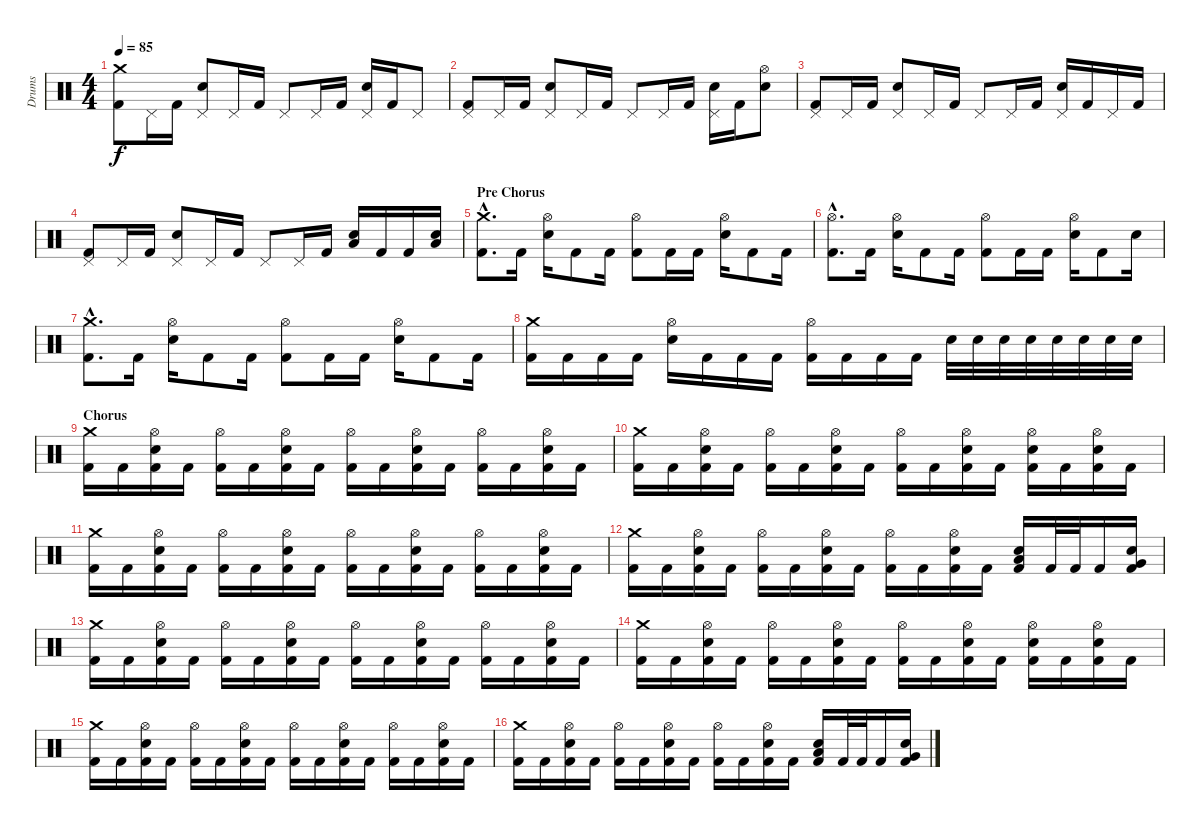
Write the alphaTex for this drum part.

\track ("Drums" "Drums") {instrument percussion}
\staff {score}
\articulation defaults
\ts (4 4)
\tempo 85
\clef neutral
\ks c
("Crash medium (hit)" "Kick (hit) 2").8{dy f} "Pedal Hi-Hat (hit)".16 "Kick (hit) 2".16 ("Pedal Hi-Hat (hit)" "Electric Snare (hit)").8 "Pedal Hi-Hat (hit)".16 "Kick (hit) 2".16 "Pedal Hi-Hat (hit)".8 "Pedal Hi-Hat (hit)".16 "Kick (hit) 2".16 ("Pedal Hi-Hat (hit)" "Electric Snare (hit)").16 "Kick (hit) 2".16 "Pedal Hi-Hat (hit)".8 |
("Pedal Hi-Hat (hit)" "Kick (hit) 2").8 "Pedal Hi-Hat (hit)".16 "Kick (hit) 2".16 ("Pedal Hi-Hat (hit)" "Electric Snare (hit)").8 "Pedal Hi-Hat (hit)".16 "Kick (hit) 2".16 "Pedal Hi-Hat (hit)".8 "Pedal Hi-Hat (hit)".16 "Kick (hit) 2".16 ("Pedal Hi-Hat (hit)" "Electric Snare (hit)").16 "Kick (hit) 2".16 ("Hi-Hat (open)" "Electric Snare (hit)").8 |
("Pedal Hi-Hat (hit)" "Kick (hit) 2").8 "Pedal Hi-Hat (hit)".16 "Kick (hit) 2".16 ("Pedal Hi-Hat (hit)" "Electric Snare (hit)").8 "Pedal Hi-Hat (hit)".16 "Kick (hit) 2".16 "Pedal Hi-Hat (hit)".8 "Pedal Hi-Hat (hit)".16 "Kick (hit) 2".16 ("Pedal Hi-Hat (hit)" "Electric Snare (hit)").16 "Kick (hit) 2".16 "Pedal Hi-Hat (hit)".16 "Kick (hit) 2".16 |
("Pedal Hi-Hat (hit)" "Kick (hit) 2").8 "Pedal Hi-Hat (hit)".16 "Kick (hit) 2".16 ("Pedal Hi-Hat (hit)" "Electric Snare (hit)").8 "Pedal Hi-Hat (hit)".16 "Kick (hit) 2".16 "Pedal Hi-Hat (hit)".8 "Pedal Hi-Hat (hit)".16 "Kick (hit) 2".16 ("Electric Snare (hit)" "Low Tom (hit)").16 "Kick (hit) 2".16 "Kick (hit) 2".16 ("Electric Snare (hit)" "Low Tom (hit)").16 |
\section ("" "Pre Chorus")
("Crash medium (hit)"{hac} "Kick (hit) 2"{hac}).8{d} "Kick (hit) 2".16 ("Hi-Hat (open)" "Electric Snare (hit)").16 "Kick (hit) 2".8 "Kick (hit) 2".16 ("Hi-Hat (open)" "Kick (hit) 2").8 "Kick (hit) 2".16 "Kick (hit) 2".16 ("Hi-Hat (open)" "Electric Snare (hit)").16 "Kick (hit) 2".8 "Kick (hit) 2".16 |
("Hi-Hat (open)"{hac} "Kick (hit) 2"{hac}).8{d} "Kick (hit) 2".16 ("Hi-Hat (open)" "Electric Snare (hit)").16 "Kick (hit) 2".8 "Kick (hit) 2".16 ("Hi-Hat (open)" "Kick (hit) 2").8 "Kick (hit) 2".16 "Kick (hit) 2".16 ("Hi-Hat (open)" "Electric Snare (hit)").16 "Kick (hit) 2".8 "Electric Snare (hit)".16 |
("Crash medium (hit)"{hac} "Kick (hit) 2"{hac}).8{d} "Kick (hit) 2".16 ("Hi-Hat (open)" "Electric Snare (hit)").16 "Kick (hit) 2".8 "Kick (hit) 2".16 ("Hi-Hat (open)" "Kick (hit) 2").8 "Kick (hit) 2".16 "Kick (hit) 2".16 ("Hi-Hat (open)" "Electric Snare (hit)").16 "Kick (hit) 2".8 "Kick (hit) 2".16 |
("Crash medium (hit)" "Kick (hit) 2").16 "Kick (hit) 2".16 "Kick (hit) 2".16 "Kick (hit) 2".16 ("Hi-Hat (open)" "Electric Snare (hit)").16 "Kick (hit) 2".16 "Kick (hit) 2".16 "Kick (hit) 2".16 ("Hi-Hat (open)" "Kick (hit) 2").16 "Kick (hit) 2".16 "Kick (hit) 2".16 "Kick (hit) 2".16 "Electric Snare (hit)".32 "Electric Snare (hit)".32 "Electric Snare (hit)".32 "Electric Snare (hit)".32 "Electric Snare (hit)".32 "Electric Snare (hit)".32 "Electric Snare (hit)".32 "Electric Snare (hit)".32 |
\section ("" "Chorus")
("Crash medium (hit)" "Kick (hit) 2").16 "Kick (hit) 2".16 ("Hi-Hat (open)" "Electric Snare (hit)" "Kick (hit) 2").16 "Kick (hit) 2".16 ("Hi-Hat (open)" "Kick (hit) 2").16 "Kick (hit) 2".16 ("Hi-Hat (open)" "Electric Snare (hit)" "Kick (hit) 2").16 "Kick (hit) 2".16 ("Hi-Hat (open)" "Kick (hit) 2").16 "Kick (hit) 2".16 ("Hi-Hat (open)" "Electric Snare (hit)" "Kick (hit) 2").16 "Kick (hit) 2".16 ("Hi-Hat (open)" "Kick (hit) 2").16 "Kick (hit) 2".16 ("Hi-Hat (open)" "Electric Snare (hit)" "Kick (hit) 2").16 "Kick (hit) 2".16 |
("Crash medium (hit)" "Kick (hit) 2").16 "Kick (hit) 2".16 ("Hi-Hat (open)" "Electric Snare (hit)" "Kick (hit) 2").16 "Kick (hit) 2".16 ("Hi-Hat (open)" "Kick (hit) 2").16 "Kick (hit) 2".16 ("Hi-Hat (open)" "Electric Snare (hit)" "Kick (hit) 2").16 "Kick (hit) 2".16 ("Hi-Hat (open)" "Kick (hit) 2").16 "Kick (hit) 2".16 ("Hi-Hat (open)" "Electric Snare (hit)" "Kick (hit) 2").16 "Kick (hit) 2".16 ("Hi-Hat (open)" "Electric Snare (hit)" "Kick (hit) 2").16 "Kick (hit) 2".16 ("Hi-Hat (open)" "Electric Snare (hit)" "Kick (hit) 2").16 "Kick (hit) 2".16 |
("Crash medium (hit)" "Kick (hit) 2").16 "Kick (hit) 2".16 ("Hi-Hat (open)" "Electric Snare (hit)" "Kick (hit) 2").16 "Kick (hit) 2".16 ("Hi-Hat (open)" "Kick (hit) 2").16 "Kick (hit) 2".16 ("Hi-Hat (open)" "Electric Snare (hit)" "Kick (hit) 2").16 "Kick (hit) 2".16 ("Hi-Hat (open)" "Kick (hit) 2").16 "Kick (hit) 2".16 ("Hi-Hat (open)" "Electric Snare (hit)" "Kick (hit) 2").16 "Kick (hit) 2".16 ("Hi-Hat (open)" "Kick (hit) 2").16 "Kick (hit) 2".16 ("Hi-Hat (open)" "Electric Snare (hit)" "Kick (hit) 2").16 "Kick (hit) 2".16 |
("Crash medium (hit)" "Kick (hit) 2").16 "Kick (hit) 2".16 ("Hi-Hat (open)" "Electric Snare (hit)" "Kick (hit) 2").16 "Kick (hit) 2".16 ("Hi-Hat (open)" "Kick (hit) 2").16 "Kick (hit) 2".16 ("Hi-Hat (open)" "Electric Snare (hit)" "Kick (hit) 2").16 "Kick (hit) 2".16 ("Hi-Hat (open)" "Kick (hit) 2").16 "Kick (hit) 2".16 ("Hi-Hat (open)" "Electric Snare (hit)" "Kick (hit) 2").16 "Kick (hit) 2".16 ("Electric Snare (hit)" "Low Tom (hit)" "Kick (hit) 2").16 "Kick (hit) 2".32 "Kick (hit) 2".32 "Kick (hit) 2".16 ("Electric Snare (hit)" "Very Low Tom (hit)" "Kick (hit) 2").16 |
("Crash medium (hit)" "Kick (hit) 2").16 "Kick (hit) 2".16 ("Hi-Hat (open)" "Electric Snare (hit)" "Kick (hit) 2").16 "Kick (hit) 2".16 ("Hi-Hat (open)" "Kick (hit) 2").16 "Kick (hit) 2".16 ("Hi-Hat (open)" "Electric Snare (hit)" "Kick (hit) 2").16 "Kick (hit) 2".16 ("Hi-Hat (open)" "Kick (hit) 2").16 "Kick (hit) 2".16 ("Hi-Hat (open)" "Electric Snare (hit)" "Kick (hit) 2").16 "Kick (hit) 2".16 ("Hi-Hat (open)" "Kick (hit) 2").16 "Kick (hit) 2".16 ("Hi-Hat (open)" "Electric Snare (hit)" "Kick (hit) 2").16 "Kick (hit) 2".16 |
("Crash medium (hit)" "Kick (hit) 2").16 "Kick (hit) 2".16 ("Hi-Hat (open)" "Electric Snare (hit)" "Kick (hit) 2").16 "Kick (hit) 2".16 ("Hi-Hat (open)" "Kick (hit) 2").16 "Kick (hit) 2".16 ("Hi-Hat (open)" "Electric Snare (hit)" "Kick (hit) 2").16 "Kick (hit) 2".16 ("Hi-Hat (open)" "Kick (hit) 2").16 "Kick (hit) 2".16 ("Hi-Hat (open)" "Electric Snare (hit)" "Kick (hit) 2").16 "Kick (hit) 2".16 ("Hi-Hat (open)" "Electric Snare (hit)" "Kick (hit) 2").16 "Kick (hit) 2".16 ("Hi-Hat (open)" "Electric Snare (hit)" "Kick (hit) 2").16 "Kick (hit) 2".16 |
("Crash medium (hit)" "Kick (hit) 2").16 "Kick (hit) 2".16 ("Hi-Hat (open)" "Electric Snare (hit)" "Kick (hit) 2").16 "Kick (hit) 2".16 ("Hi-Hat (open)" "Kick (hit) 2").16 "Kick (hit) 2".16 ("Hi-Hat (open)" "Electric Snare (hit)" "Kick (hit) 2").16 "Kick (hit) 2".16 ("Hi-Hat (open)" "Kick (hit) 2").16 "Kick (hit) 2".16 ("Hi-Hat (open)" "Electric Snare (hit)" "Kick (hit) 2").16 "Kick (hit) 2".16 ("Hi-Hat (open)" "Kick (hit) 2").16 "Kick (hit) 2".16 ("Hi-Hat (open)" "Electric Snare (hit)" "Kick (hit) 2").16 "Kick (hit) 2".16 |
("Crash medium (hit)" "Kick (hit) 2").16 "Kick (hit) 2".16 ("Hi-Hat (open)" "Electric Snare (hit)" "Kick (hit) 2").16 "Kick (hit) 2".16 ("Hi-Hat (open)" "Kick (hit) 2").16 "Kick (hit) 2".16 ("Hi-Hat (open)" "Electric Snare (hit)" "Kick (hit) 2").16 "Kick (hit) 2".16 ("Hi-Hat (open)" "Kick (hit) 2").16 "Kick (hit) 2".16 ("Hi-Hat (open)" "Electric Snare (hit)" "Kick (hit) 2").16 "Kick (hit) 2".16 ("Electric Snare (hit)" "Low Tom (hit)" "Kick (hit) 2").16 "Kick (hit) 2".32 "Kick (hit) 2".32 "Kick (hit) 2".16 ("Electric Snare (hit)" "Very Low Tom (hit)" "Kick (hit) 2").16
